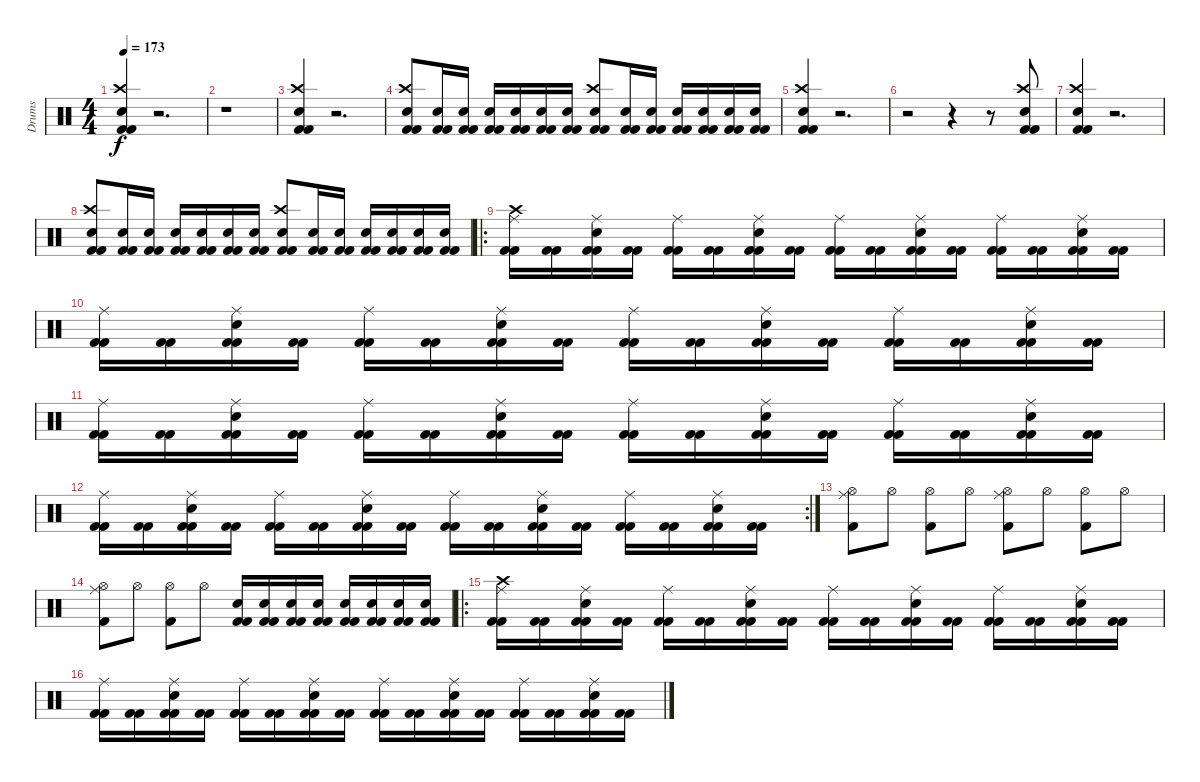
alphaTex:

\track ("Drums" "Drums") {instrument percussion}
\staff {score}
\articulation defaults
\ts (4 4)
\tempo 173
\clef neutral
\ks c
("Kick (hit) 2" "Kick (hit) 2" "Crash high (hit)" "Electric Snare (hit)").4{dy f} r.2{d} |
r.1 |
("Kick (hit) 2" "Kick (hit) 2" "Crash high (hit)" "Electric Snare (hit)").4 r.2{d} |
("Kick (hit) 2" "Kick (hit) 2" "Crash high (hit)" "Electric Snare (hit)").8 ("Kick (hit) 2" "Kick (hit) 2" "Electric Snare (hit)").16 ("Kick (hit) 2" "Kick (hit) 2" "Electric Snare (hit)").16 ("Kick (hit) 2" "Kick (hit) 2" "Electric Snare (hit)").16 ("Kick (hit) 2" "Kick (hit) 2" "Electric Snare (hit)").16 ("Kick (hit) 2" "Kick (hit) 2" "Electric Snare (hit)").16 ("Kick (hit) 2" "Kick (hit) 2" "Electric Snare (hit)").16 ("Kick (hit) 2" "Kick (hit) 2" "Crash high (hit)" "Electric Snare (hit)").8 ("Kick (hit) 2" "Kick (hit) 2" "Electric Snare (hit)").16 ("Kick (hit) 2" "Kick (hit) 2" "Electric Snare (hit)").16 ("Kick (hit) 2" "Kick (hit) 2" "Electric Snare (hit)").16 ("Kick (hit) 2" "Kick (hit) 2" "Electric Snare (hit)").16 ("Kick (hit) 2" "Kick (hit) 2" "Electric Snare (hit)").16 ("Kick (hit) 2" "Kick (hit) 2" "Electric Snare (hit)").16 |
("Kick (hit) 2" "Kick (hit) 2" "Crash high (hit)" "Electric Snare (hit)").4 r.2{d} |
r.2 r.4 r.8 ("Kick (hit) 2" "Kick (hit) 2" "Crash high (hit)" "Electric Snare (hit)").8 |
("Kick (hit) 2" "Kick (hit) 2" "Crash high (hit)" "Electric Snare (hit)").4 r.2{d} |
("Kick (hit) 2" "Kick (hit) 2" "Crash high (hit)" "Electric Snare (hit)").8 ("Kick (hit) 2" "Kick (hit) 2" "Electric Snare (hit)").16 ("Kick (hit) 2" "Kick (hit) 2" "Electric Snare (hit)").16 ("Kick (hit) 2" "Kick (hit) 2" "Electric Snare (hit)").16 ("Kick (hit) 2" "Kick (hit) 2" "Electric Snare (hit)").16 ("Kick (hit) 2" "Kick (hit) 2" "Electric Snare (hit)").16 ("Kick (hit) 2" "Kick (hit) 2" "Electric Snare (hit)").16 ("Kick (hit) 2" "Kick (hit) 2" "Crash high (hit)" "Electric Snare (hit)").8 ("Kick (hit) 2" "Kick (hit) 2" "Electric Snare (hit)").16 ("Kick (hit) 2" "Kick (hit) 2" "Electric Snare (hit)").16 ("Kick (hit) 2" "Kick (hit) 2" "Electric Snare (hit)").16 ("Kick (hit) 2" "Kick (hit) 2" "Electric Snare (hit)").16 ("Kick (hit) 2" "Kick (hit) 2" "Electric Snare (hit)").16 ("Kick (hit) 2" "Kick (hit) 2" "Electric Snare (hit)").16 |
\ro
("Kick (hit) 2" "Kick (hit) 2" "Ride (middle)" "Crash high (hit)").16 ("Kick (hit) 2" "Kick (hit) 2").16 ("Kick (hit) 2" "Kick (hit) 2" "Ride (middle)" "Electric Snare (hit)").16 ("Kick (hit) 2" "Kick (hit) 2").16 ("Kick (hit) 2" "Kick (hit) 2" "Ride (middle)").16 ("Kick (hit) 2" "Kick (hit) 2").16 ("Kick (hit) 2" "Kick (hit) 2" "Ride (middle)" "Electric Snare (hit)").16 ("Kick (hit) 2" "Kick (hit) 2").16 ("Kick (hit) 2" "Kick (hit) 2" "Ride (middle)").16 ("Kick (hit) 2" "Kick (hit) 2").16 ("Kick (hit) 2" "Kick (hit) 2" "Ride (middle)" "Electric Snare (hit)").16 ("Kick (hit) 2" "Kick (hit) 2").16 ("Kick (hit) 2" "Kick (hit) 2" "Ride (middle)").16 ("Kick (hit) 2" "Kick (hit) 2").16 ("Kick (hit) 2" "Kick (hit) 2" "Ride (middle)" "Electric Snare (hit)").16 ("Kick (hit) 2" "Kick (hit) 2").16 |
("Kick (hit) 2" "Kick (hit) 2" "Ride (middle)").16 ("Kick (hit) 2" "Kick (hit) 2").16 ("Kick (hit) 2" "Kick (hit) 2" "Ride (middle)" "Electric Snare (hit)").16 ("Kick (hit) 2" "Kick (hit) 2").16 ("Kick (hit) 2" "Kick (hit) 2" "Ride (middle)").16 ("Kick (hit) 2" "Kick (hit) 2").16 ("Kick (hit) 2" "Kick (hit) 2" "Ride (middle)" "Electric Snare (hit)").16 ("Kick (hit) 2" "Kick (hit) 2").16 ("Kick (hit) 2" "Kick (hit) 2" "Ride (middle)").16 ("Kick (hit) 2" "Kick (hit) 2").16 ("Kick (hit) 2" "Kick (hit) 2" "Ride (middle)" "Electric Snare (hit)").16 ("Kick (hit) 2" "Kick (hit) 2").16 ("Kick (hit) 2" "Kick (hit) 2" "Ride (middle)").16 ("Kick (hit) 2" "Kick (hit) 2").16 ("Kick (hit) 2" "Kick (hit) 2" "Ride (middle)" "Electric Snare (hit)").16 ("Kick (hit) 2" "Kick (hit) 2").16 |
("Kick (hit) 2" "Kick (hit) 2" "Ride (middle)").16 ("Kick (hit) 2" "Kick (hit) 2").16 ("Kick (hit) 2" "Kick (hit) 2" "Ride (middle)" "Electric Snare (hit)").16 ("Kick (hit) 2" "Kick (hit) 2").16 ("Kick (hit) 2" "Kick (hit) 2" "Ride (middle)").16 ("Kick (hit) 2" "Kick (hit) 2").16 ("Kick (hit) 2" "Kick (hit) 2" "Ride (middle)" "Electric Snare (hit)").16 ("Kick (hit) 2" "Kick (hit) 2").16 ("Kick (hit) 2" "Kick (hit) 2" "Ride (middle)").16 ("Kick (hit) 2" "Kick (hit) 2").16 ("Kick (hit) 2" "Kick (hit) 2" "Ride (middle)" "Electric Snare (hit)").16 ("Kick (hit) 2" "Kick (hit) 2").16 ("Kick (hit) 2" "Kick (hit) 2" "Ride (middle)").16 ("Kick (hit) 2" "Kick (hit) 2").16 ("Kick (hit) 2" "Kick (hit) 2" "Ride (middle)" "Electric Snare (hit)").16 ("Kick (hit) 2" "Kick (hit) 2").16 |
\rc 2
("Kick (hit) 2" "Kick (hit) 2" "Ride (middle)").16 ("Kick (hit) 2" "Kick (hit) 2").16 ("Kick (hit) 2" "Kick (hit) 2" "Ride (middle)" "Electric Snare (hit)").16 ("Kick (hit) 2" "Kick (hit) 2").16 ("Kick (hit) 2" "Kick (hit) 2" "Ride (middle)").16 ("Kick (hit) 2" "Kick (hit) 2").16 ("Kick (hit) 2" "Kick (hit) 2" "Ride (middle)" "Electric Snare (hit)").16 ("Kick (hit) 2" "Kick (hit) 2").16 ("Kick (hit) 2" "Kick (hit) 2" "Ride (middle)").16 ("Kick (hit) 2" "Kick (hit) 2").16 ("Kick (hit) 2" "Kick (hit) 2" "Ride (middle)" "Electric Snare (hit)").16 ("Kick (hit) 2" "Kick (hit) 2").16 ("Kick (hit) 2" "Kick (hit) 2" "Ride (middle)").16 ("Kick (hit) 2" "Kick (hit) 2").16 ("Kick (hit) 2" "Kick (hit) 2" "Ride (middle)" "Electric Snare (hit)").16 ("Kick (hit) 2" "Kick (hit) 2").16 |
("Kick (hit) 2" "Hi-Hat (open)" "Ride (middle)").8 "Hi-Hat (open)".8 ("Kick (hit) 2" "Hi-Hat (open)").8 "Hi-Hat (open)".8 ("Kick (hit) 2" "Hi-Hat (open)" "Ride (middle)").8 "Hi-Hat (open)".8 ("Kick (hit) 2" "Hi-Hat (open)").8 "Hi-Hat (open)".8 |
("Kick (hit) 2" "Hi-Hat (open)" "Ride (middle)").8 "Hi-Hat (open)".8 ("Kick (hit) 2" "Hi-Hat (open)").8 "Hi-Hat (open)".8 ("Kick (hit) 2" "Kick (hit) 2" "Electric Snare (hit)").16 ("Kick (hit) 2" "Kick (hit) 2" "Electric Snare (hit)").16 ("Kick (hit) 2" "Kick (hit) 2" "Electric Snare (hit)").16 ("Kick (hit) 2" "Kick (hit) 2" "Electric Snare (hit)").16 ("Kick (hit) 2" "Kick (hit) 2" "Electric Snare (hit)").16 ("Kick (hit) 2" "Kick (hit) 2" "Electric Snare (hit)").16 ("Kick (hit) 2" "Kick (hit) 2" "Electric Snare (hit)").16 ("Kick (hit) 2" "Kick (hit) 2" "Electric Snare (hit)").16 |
\ro
("Kick (hit) 2" "Kick (hit) 2" "Ride (middle)" "Crash high (hit)").16 ("Kick (hit) 2" "Kick (hit) 2").16 ("Kick (hit) 2" "Kick (hit) 2" "Ride (middle)" "Electric Snare (hit)").16 ("Kick (hit) 2" "Kick (hit) 2").16 ("Kick (hit) 2" "Kick (hit) 2" "Ride (middle)").16 ("Kick (hit) 2" "Kick (hit) 2").16 ("Kick (hit) 2" "Kick (hit) 2" "Ride (middle)" "Electric Snare (hit)").16 ("Kick (hit) 2" "Kick (hit) 2").16 ("Kick (hit) 2" "Kick (hit) 2" "Ride (middle)").16 ("Kick (hit) 2" "Kick (hit) 2").16 ("Kick (hit) 2" "Kick (hit) 2" "Ride (middle)" "Electric Snare (hit)").16 ("Kick (hit) 2" "Kick (hit) 2").16 ("Kick (hit) 2" "Kick (hit) 2" "Ride (middle)").16 ("Kick (hit) 2" "Kick (hit) 2").16 ("Kick (hit) 2" "Kick (hit) 2" "Ride (middle)" "Electric Snare (hit)").16 ("Kick (hit) 2" "Kick (hit) 2").16 |
("Kick (hit) 2" "Kick (hit) 2" "Ride (middle)").16 ("Kick (hit) 2" "Kick (hit) 2").16 ("Kick (hit) 2" "Kick (hit) 2" "Ride (middle)" "Electric Snare (hit)").16 ("Kick (hit) 2" "Kick (hit) 2").16 ("Kick (hit) 2" "Kick (hit) 2" "Ride (middle)").16 ("Kick (hit) 2" "Kick (hit) 2").16 ("Kick (hit) 2" "Kick (hit) 2" "Ride (middle)" "Electric Snare (hit)").16 ("Kick (hit) 2" "Kick (hit) 2").16 ("Kick (hit) 2" "Kick (hit) 2" "Ride (middle)").16 ("Kick (hit) 2" "Kick (hit) 2").16 ("Kick (hit) 2" "Kick (hit) 2" "Ride (middle)" "Electric Snare (hit)").16 ("Kick (hit) 2" "Kick (hit) 2").16 ("Kick (hit) 2" "Kick (hit) 2" "Ride (middle)").16 ("Kick (hit) 2" "Kick (hit) 2").16 ("Kick (hit) 2" "Kick (hit) 2" "Ride (middle)" "Electric Snare (hit)").16 ("Kick (hit) 2" "Kick (hit) 2").16
